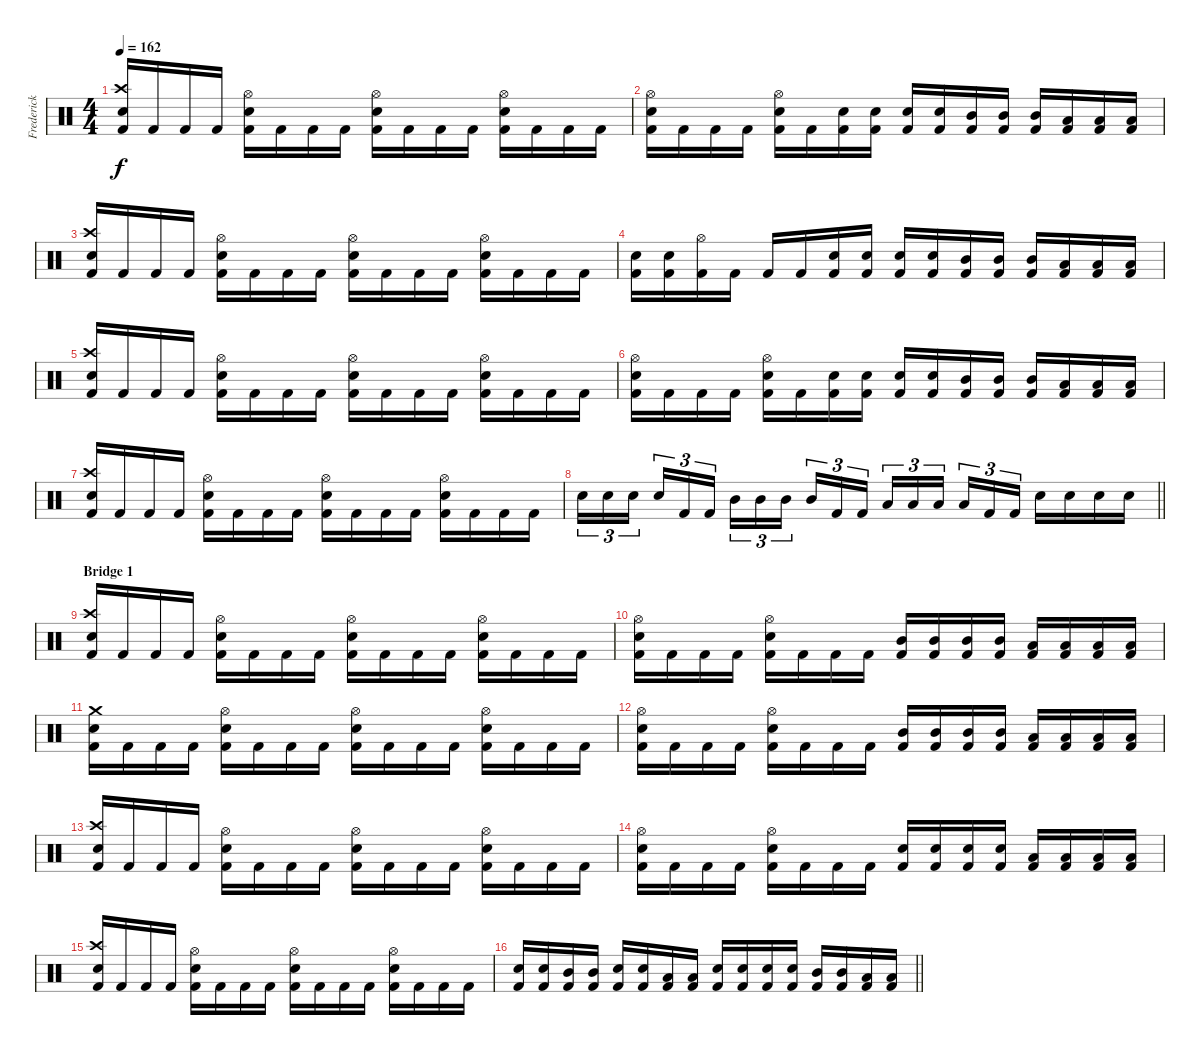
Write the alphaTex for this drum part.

\track ("Frederick Ehmke" "Frederick ") {instrument percussion}
\staff {score}
\articulation defaults
\ts (4 4)
\tempo 162
\clef neutral
\ks c
("Electric Snare (hit)" "Crash high (hit)" "Kick (hit) 2").16{dy f} "Kick (hit) 2".16 "Kick (hit) 2".16 "Kick (hit) 2".16 ("Electric Snare (hit)" "Hi-Hat (open)" "Kick (hit) 2").16 "Kick (hit) 2".16 "Kick (hit) 2".16 "Kick (hit) 2".16 ("Electric Snare (hit)" "Hi-Hat (open)" "Kick (hit) 2").16 "Kick (hit) 2".16 "Kick (hit) 2".16 "Kick (hit) 2".16 ("Electric Snare (hit)" "Hi-Hat (open)" "Kick (hit) 2").16 "Kick (hit) 2".16 "Kick (hit) 2".16 "Kick (hit) 2".16 |
("Electric Snare (hit)" "Hi-Hat (open)" "Kick (hit) 2").16 "Kick (hit) 2".16 "Kick (hit) 2".16 "Kick (hit) 2".16 ("Electric Snare (hit)" "Hi-Hat (open)" "Kick (hit) 2").16 "Kick (hit) 2".16 ("Electric Snare (hit)" "Kick (hit) 2").16 ("Electric Snare (hit)" "Kick (hit) 2").16 ("Electric Snare (hit)" "Kick (hit) 2").16 ("Electric Snare (hit)" "Kick (hit) 2").16 ("Mid Tom (hit)" "Kick (hit) 2").16 ("Mid Tom (hit)" "Kick (hit) 2").16 ("Mid Tom (hit)" "Kick (hit) 2").16 ("Low Tom (hit)" "Kick (hit) 2").16 ("Low Tom (hit)" "Kick (hit) 2").16 ("Low Tom (hit)" "Kick (hit) 2").16 |
("Electric Snare (hit)" "Crash high (hit)" "Kick (hit) 2").16 "Kick (hit) 2".16 "Kick (hit) 2".16 "Kick (hit) 2".16 ("Electric Snare (hit)" "Hi-Hat (open)" "Kick (hit) 2").16 "Kick (hit) 2".16 "Kick (hit) 2".16 "Kick (hit) 2".16 ("Electric Snare (hit)" "Hi-Hat (open)" "Kick (hit) 2").16 "Kick (hit) 2".16 "Kick (hit) 2".16 "Kick (hit) 2".16 ("Electric Snare (hit)" "Hi-Hat (open)" "Kick (hit) 2").16 "Kick (hit) 2".16 "Kick (hit) 2".16 "Kick (hit) 2".16 |
("Electric Snare (hit)" "Kick (hit) 2").16 ("Electric Snare (hit)" "Kick (hit) 2").16 ("Hi-Hat (open)" "Kick (hit) 2").16 "Kick (hit) 2".16 "Kick (hit) 2".16 "Kick (hit) 2".16 ("Electric Snare (hit)" "Kick (hit) 2").16 ("Electric Snare (hit)" "Kick (hit) 2").16 ("Electric Snare (hit)" "Kick (hit) 2").16 ("Electric Snare (hit)" "Kick (hit) 2").16 ("Mid Tom (hit)" "Kick (hit) 2").16 ("Mid Tom (hit)" "Kick (hit) 2").16 ("Mid Tom (hit)" "Kick (hit) 2").16 ("Low Tom (hit)" "Kick (hit) 2").16 ("Low Tom (hit)" "Kick (hit) 2").16 ("Low Tom (hit)" "Kick (hit) 2").16 |
("Electric Snare (hit)" "Crash high (hit)" "Kick (hit) 2").16 "Kick (hit) 2".16 "Kick (hit) 2".16 "Kick (hit) 2".16 ("Electric Snare (hit)" "Hi-Hat (open)" "Kick (hit) 2").16 "Kick (hit) 2".16 "Kick (hit) 2".16 "Kick (hit) 2".16 ("Electric Snare (hit)" "Hi-Hat (open)" "Kick (hit) 2").16 "Kick (hit) 2".16 "Kick (hit) 2".16 "Kick (hit) 2".16 ("Electric Snare (hit)" "Hi-Hat (open)" "Kick (hit) 2").16 "Kick (hit) 2".16 "Kick (hit) 2".16 "Kick (hit) 2".16 |
("Electric Snare (hit)" "Hi-Hat (open)" "Kick (hit) 2").16 "Kick (hit) 2".16 "Kick (hit) 2".16 "Kick (hit) 2".16 ("Electric Snare (hit)" "Hi-Hat (open)" "Kick (hit) 2").16 "Kick (hit) 2".16 ("Electric Snare (hit)" "Kick (hit) 2").16 ("Electric Snare (hit)" "Kick (hit) 2").16 ("Electric Snare (hit)" "Kick (hit) 2").16 ("Electric Snare (hit)" "Kick (hit) 2").16 ("Mid Tom (hit)" "Kick (hit) 2").16 ("Mid Tom (hit)" "Kick (hit) 2").16 ("Mid Tom (hit)" "Kick (hit) 2").16 ("Low Tom (hit)" "Kick (hit) 2").16 ("Low Tom (hit)" "Kick (hit) 2").16 ("Low Tom (hit)" "Kick (hit) 2").16 |
("Electric Snare (hit)" "Crash high (hit)" "Kick (hit) 2").16 "Kick (hit) 2".16 "Kick (hit) 2".16 "Kick (hit) 2".16 ("Electric Snare (hit)" "Hi-Hat (open)" "Kick (hit) 2").16 "Kick (hit) 2".16 "Kick (hit) 2".16 "Kick (hit) 2".16 ("Electric Snare (hit)" "Hi-Hat (open)" "Kick (hit) 2").16 "Kick (hit) 2".16 "Kick (hit) 2".16 "Kick (hit) 2".16 ("Electric Snare (hit)" "Hi-Hat (open)" "Kick (hit) 2").16 "Kick (hit) 2".16 "Kick (hit) 2".16 "Kick (hit) 2".16 |
\barLineRight lightlight "Electric Snare (hit)".16{tu (3 2)} "Electric Snare (hit)".16{tu (3 2)} "Electric Snare (hit)".16{tu (3 2) beam splitsecondary} "Electric Snare (hit)".16{tu (3 2)} "Kick (hit) 2".16{tu (3 2)} "Kick (hit) 2".16{tu (3 2)} "Mid Tom (hit)".16{tu (3 2)} "Mid Tom (hit)".16{tu (3 2)} "Mid Tom (hit)".16{tu (3 2) beam splitsecondary} "Mid Tom (hit)".16{tu (3 2)} "Kick (hit) 2".16{tu (3 2)} "Kick (hit) 2".16{tu (3 2)} "Low Tom (hit)".16{tu (3 2)} "Low Tom (hit)".16{tu (3 2)} "Low Tom (hit)".16{tu (3 2) beam splitsecondary} "Low Tom (hit)".16{tu (3 2)} "Kick (hit) 2".16{tu (3 2)} "Kick (hit) 2".16{tu (3 2)} "Electric Snare (hit)".16 "Electric Snare (hit)".16 "Electric Snare (hit)".16 "Electric Snare (hit)".16
|
\section ("" "Bridge 1")
("Electric Snare (hit)" "Crash high (hit)" "Kick (hit) 2").16 "Kick (hit) 2".16 "Kick (hit) 2".16 "Kick (hit) 2".16 ("Electric Snare (hit)" "Hi-Hat (open)" "Kick (hit) 2").16 "Kick (hit) 2".16 "Kick (hit) 2".16 "Kick (hit) 2".16 ("Electric Snare (hit)" "Hi-Hat (open)" "Kick (hit) 2").16 "Kick (hit) 2".16 "Kick (hit) 2".16 "Kick (hit) 2".16 ("Electric Snare (hit)" "Hi-Hat (open)" "Kick (hit) 2").16 "Kick (hit) 2".16 "Kick (hit) 2".16 "Kick (hit) 2".16 |
("Electric Snare (hit)" "Hi-Hat (open)" "Kick (hit) 2").16 "Kick (hit) 2".16 "Kick (hit) 2".16 "Kick (hit) 2".16 ("Electric Snare (hit)" "Hi-Hat (open)" "Kick (hit) 2").16 "Kick (hit) 2".16 "Kick (hit) 2".16 "Kick (hit) 2".16 ("Mid Tom (hit)" "Kick (hit) 2").16 ("Mid Tom (hit)" "Kick (hit) 2").16 ("Mid Tom (hit)" "Kick (hit) 2").16 ("Mid Tom (hit)" "Kick (hit) 2").16 ("Low Tom (hit)" "Kick (hit) 2").16 ("Low Tom (hit)" "Kick (hit) 2").16 ("Low Tom (hit)" "Kick (hit) 2").16 ("Low Tom (hit)" "Kick (hit) 2").16 |
("Electric Snare (hit)" "Crash medium (hit)" "Kick (hit) 2").16 "Kick (hit) 2".16 "Kick (hit) 2".16 "Kick (hit) 2".16 ("Electric Snare (hit)" "Hi-Hat (open)" "Kick (hit) 2").16 "Kick (hit) 2".16 "Kick (hit) 2".16 "Kick (hit) 2".16 ("Electric Snare (hit)" "Hi-Hat (open)" "Kick (hit) 2").16 "Kick (hit) 2".16 "Kick (hit) 2".16 "Kick (hit) 2".16 ("Electric Snare (hit)" "Hi-Hat (open)" "Kick (hit) 2").16 "Kick (hit) 2".16 "Kick (hit) 2".16 "Kick (hit) 2".16 |
("Electric Snare (hit)" "Hi-Hat (open)" "Kick (hit) 2").16 "Kick (hit) 2".16 "Kick (hit) 2".16 "Kick (hit) 2".16 ("Electric Snare (hit)" "Hi-Hat (open)" "Kick (hit) 2").16 "Kick (hit) 2".16 "Kick (hit) 2".16 "Kick (hit) 2".16 ("Mid Tom (hit)" "Kick (hit) 2").16 ("Mid Tom (hit)" "Kick (hit) 2").16 ("Mid Tom (hit)" "Kick (hit) 2").16 ("Mid Tom (hit)" "Kick (hit) 2").16 ("Low Tom (hit)" "Kick (hit) 2").16 ("Low Tom (hit)" "Kick (hit) 2").16 ("Low Tom (hit)" "Kick (hit) 2").16 ("Low Tom (hit)" "Kick (hit) 2").16 |
("Electric Snare (hit)" "Crash high (hit)" "Kick (hit) 2").16 "Kick (hit) 2".16 "Kick (hit) 2".16 "Kick (hit) 2".16 ("Electric Snare (hit)" "Hi-Hat (open)" "Kick (hit) 2").16 "Kick (hit) 2".16 "Kick (hit) 2".16 "Kick (hit) 2".16 ("Electric Snare (hit)" "Hi-Hat (open)" "Kick (hit) 2").16 "Kick (hit) 2".16 "Kick (hit) 2".16 "Kick (hit) 2".16 ("Electric Snare (hit)" "Hi-Hat (open)" "Kick (hit) 2").16 "Kick (hit) 2".16 "Kick (hit) 2".16 "Kick (hit) 2".16 |
("Electric Snare (hit)" "Hi-Hat (open)" "Kick (hit) 2").16 "Kick (hit) 2".16 "Kick (hit) 2".16 "Kick (hit) 2".16 ("Electric Snare (hit)" "Hi-Hat (open)" "Kick (hit) 2").16 "Kick (hit) 2".16 "Kick (hit) 2".16 "Kick (hit) 2".16 ("Electric Snare (hit)" "Kick (hit) 2").16 ("Electric Snare (hit)" "Kick (hit) 2").16 ("Electric Snare (hit)" "Kick (hit) 2").16 ("Electric Snare (hit)" "Kick (hit) 2").16 ("Low Tom (hit)" "Kick (hit) 2").16 ("Low Tom (hit)" "Kick (hit) 2").16 ("Low Tom (hit)" "Kick (hit) 2").16 ("Low Tom (hit)" "Kick (hit) 2").16 |
("Electric Snare (hit)" "Crash high (hit)" "Kick (hit) 2").16 "Kick (hit) 2".16 "Kick (hit) 2".16 "Kick (hit) 2".16 ("Electric Snare (hit)" "Hi-Hat (open)" "Kick (hit) 2").16 "Kick (hit) 2".16 "Kick (hit) 2".16 "Kick (hit) 2".16 ("Electric Snare (hit)" "Hi-Hat (open)" "Kick (hit) 2").16 "Kick (hit) 2".16 "Kick (hit) 2".16 "Kick (hit) 2".16 ("Electric Snare (hit)" "Hi-Hat (open)" "Kick (hit) 2").16 "Kick (hit) 2".16 "Kick (hit) 2".16 "Kick (hit) 2".16 |
\barLineRight lightlight
("Electric Snare (hit)" "Kick (hit) 2").16 ("Electric Snare (hit)" "Kick (hit) 2").16 ("Mid Tom (hit)" "Kick (hit) 2").16 ("Mid Tom (hit)" "Kick (hit) 2").16 ("Electric Snare (hit)" "Kick (hit) 2").16 ("Electric Snare (hit)" "Kick (hit) 2").16 ("Low Tom (hit)" "Kick (hit) 2").16 ("Low Tom (hit)" "Kick (hit) 2").16 ("Electric Snare (hit)" "Kick (hit) 2").16 ("Electric Snare (hit)" "Kick (hit) 2").16 ("Electric Snare (hit)" "Kick (hit) 2").16 ("Electric Snare (hit)" "Kick (hit) 2").16 ("Mid Tom (hit)" "Kick (hit) 2").16 ("Mid Tom (hit)" "Kick (hit) 2").16 ("Low Tom (hit)" "Kick (hit) 2").16 ("Low Tom (hit)" "Kick (hit) 2").16
